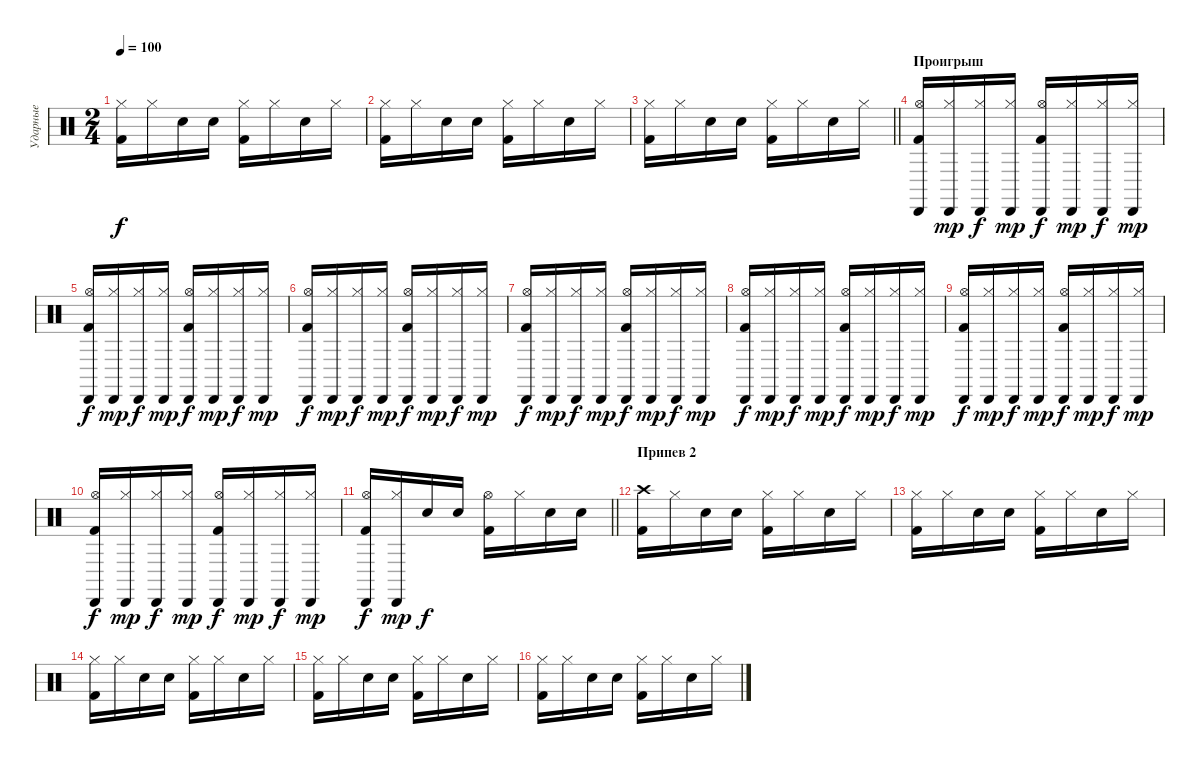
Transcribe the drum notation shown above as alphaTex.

\track ("Ударные" "Ударные") {instrument percussion}
\staff {score}
\articulation defaults
\ts (2 4)
\tempo 100
\clef neutral
\ks c
("Hi-Hat (closed)" "Kick (hit) 2").16{dy f} "Hi-Hat (closed)".16 "Electric Snare (hit)".16 "Electric Snare (hit)".16 ("Kick (hit) 2" "Hi-Hat (closed)").16 "Hi-Hat (closed)".16 "Electric Snare (hit)".16 "Hi-Hat (closed)".16 |
("Hi-Hat (closed)" "Kick (hit) 2").16 "Hi-Hat (closed)".16 "Electric Snare (hit)".16 "Electric Snare (hit)".16 ("Kick (hit) 2" "Hi-Hat (closed)").16 "Hi-Hat (closed)".16 "Electric Snare (hit)".16 "Hi-Hat (closed)".16 |
\barLineRight lightlight
("Hi-Hat (closed)" "Kick (hit) 2").16 "Hi-Hat (closed)".16 "Electric Snare (hit)".16 "Electric Snare (hit)".16 ("Kick (hit) 2" "Hi-Hat (closed)").16 "Hi-Hat (closed)".16 "Electric Snare (hit)".16 "Hi-Hat (closed)".16 |
\section ("" "Проигрыш")
("Kick (hit) 2" "Cabasa (hit)" "Hi-Hat (open)").16 ("Cabasa (hit)" "Hi-Hat (closed)").16{dy mp} ("Hi-Hat (closed)" "Cabasa (hit)").16{dy f} ("Cabasa (hit)" "Hi-Hat (closed)").16{dy mp} ("Hi-Hat (open)" "Cabasa (hit)" "Kick (hit) 2").16{dy f} ("Hi-Hat (closed)" "Cabasa (hit)").16{dy mp} ("Hi-Hat (closed)" "Cabasa (hit)").16{dy f} ("Hi-Hat (closed)" "Cabasa (hit)").16{dy mp} |
("Kick (hit) 2" "Cabasa (hit)" "Hi-Hat (open)").16{dy f} ("Cabasa (hit)" "Hi-Hat (closed)").16{dy mp} ("Hi-Hat (closed)" "Cabasa (hit)").16{dy f} ("Cabasa (hit)" "Hi-Hat (closed)").16{dy mp} ("Hi-Hat (open)" "Cabasa (hit)" "Kick (hit) 2").16{dy f} ("Hi-Hat (closed)" "Cabasa (hit)").16{dy mp} ("Hi-Hat (closed)" "Cabasa (hit)").16{dy f} ("Hi-Hat (closed)" "Cabasa (hit)").16{dy mp} |
("Kick (hit) 2" "Cabasa (hit)" "Hi-Hat (open)").16{dy f} ("Cabasa (hit)" "Hi-Hat (closed)").16{dy mp} ("Hi-Hat (closed)" "Cabasa (hit)").16{dy f} ("Cabasa (hit)" "Hi-Hat (closed)").16{dy mp} ("Hi-Hat (open)" "Cabasa (hit)" "Kick (hit) 2").16{dy f} ("Hi-Hat (closed)" "Cabasa (hit)").16{dy mp} ("Hi-Hat (closed)" "Cabasa (hit)").16{dy f} ("Hi-Hat (closed)" "Cabasa (hit)").16{dy mp} |
("Kick (hit) 2" "Cabasa (hit)" "Hi-Hat (open)").16{dy f} ("Cabasa (hit)" "Hi-Hat (closed)").16{dy mp} ("Hi-Hat (closed)" "Cabasa (hit)").16{dy f} ("Cabasa (hit)" "Hi-Hat (closed)").16{dy mp} ("Hi-Hat (open)" "Cabasa (hit)" "Kick (hit) 2").16{dy f} ("Hi-Hat (closed)" "Cabasa (hit)").16{dy mp} ("Hi-Hat (closed)" "Cabasa (hit)").16{dy f} ("Hi-Hat (closed)" "Cabasa (hit)").16{dy mp} |
("Kick (hit) 2" "Cabasa (hit)" "Hi-Hat (open)").16{dy f} ("Cabasa (hit)" "Hi-Hat (closed)").16{dy mp} ("Hi-Hat (closed)" "Cabasa (hit)").16{dy f} ("Cabasa (hit)" "Hi-Hat (closed)").16{dy mp} ("Hi-Hat (open)" "Cabasa (hit)" "Kick (hit) 2").16{dy f} ("Hi-Hat (closed)" "Cabasa (hit)").16{dy mp} ("Hi-Hat (closed)" "Cabasa (hit)").16{dy f} ("Hi-Hat (closed)" "Cabasa (hit)").16{dy mp} |
("Kick (hit) 2" "Cabasa (hit)" "Hi-Hat (open)").16{dy f} ("Cabasa (hit)" "Hi-Hat (closed)").16{dy mp} ("Hi-Hat (closed)" "Cabasa (hit)").16{dy f} ("Cabasa (hit)" "Hi-Hat (closed)").16{dy mp} ("Hi-Hat (open)" "Cabasa (hit)" "Kick (hit) 2").16{dy f} ("Hi-Hat (closed)" "Cabasa (hit)").16{dy mp} ("Hi-Hat (closed)" "Cabasa (hit)").16{dy f} ("Hi-Hat (closed)" "Cabasa (hit)").16{dy mp} |
("Kick (hit) 2" "Cabasa (hit)" "Hi-Hat (open)").16{dy f} ("Cabasa (hit)" "Hi-Hat (closed)").16{dy mp} ("Hi-Hat (closed)" "Cabasa (hit)").16{dy f} ("Cabasa (hit)" "Hi-Hat (closed)").16{dy mp} ("Hi-Hat (open)" "Cabasa (hit)" "Kick (hit) 2").16{dy f} ("Hi-Hat (closed)" "Cabasa (hit)").16{dy mp} ("Hi-Hat (closed)" "Cabasa (hit)").16{dy f} ("Hi-Hat (closed)" "Cabasa (hit)").16{dy mp} |
\barLineRight lightlight
("Kick (hit) 2" "Cabasa (hit)" "Hi-Hat (open)").16{dy f} ("Cabasa (hit)" "Hi-Hat (closed)").16{dy mp} "Electric Snare (hit)".16{dy f} "Electric Snare (hit)".16 ("Kick (hit) 2" "Hi-Hat (open)").16 "Hi-Hat (closed)".16 "Electric Snare (hit)".16 "Electric Snare (hit)".16 |
\section ("" "Припев 2")
("Crash high (hit)" "Kick (hit) 2").16 "Hi-Hat (closed)".16 "Electric Snare (hit)".16 "Electric Snare (hit)".16 ("Kick (hit) 2" "Hi-Hat (closed)").16 "Hi-Hat (closed)".16 "Electric Snare (hit)".16 "Hi-Hat (closed)".16 |
("Hi-Hat (closed)" "Kick (hit) 2").16 "Hi-Hat (closed)".16 "Electric Snare (hit)".16 "Electric Snare (hit)".16 ("Kick (hit) 2" "Hi-Hat (closed)").16 "Hi-Hat (closed)".16 "Electric Snare (hit)".16 "Hi-Hat (closed)".16 |
("Hi-Hat (closed)" "Kick (hit) 2").16 "Hi-Hat (closed)".16 "Electric Snare (hit)".16 "Electric Snare (hit)".16 ("Kick (hit) 2" "Hi-Hat (closed)").16 "Hi-Hat (closed)".16 "Electric Snare (hit)".16 "Hi-Hat (closed)".16 |
("Hi-Hat (closed)" "Kick (hit) 2").16 "Hi-Hat (closed)".16 "Electric Snare (hit)".16 "Electric Snare (hit)".16 ("Kick (hit) 2" "Hi-Hat (closed)").16 "Hi-Hat (closed)".16 "Electric Snare (hit)".16 "Hi-Hat (closed)".16 |
("Hi-Hat (closed)" "Kick (hit) 2").16 "Hi-Hat (closed)".16 "Electric Snare (hit)".16 "Electric Snare (hit)".16 ("Kick (hit) 2" "Hi-Hat (closed)").16 "Hi-Hat (closed)".16 "Electric Snare (hit)".16 "Hi-Hat (closed)".16
